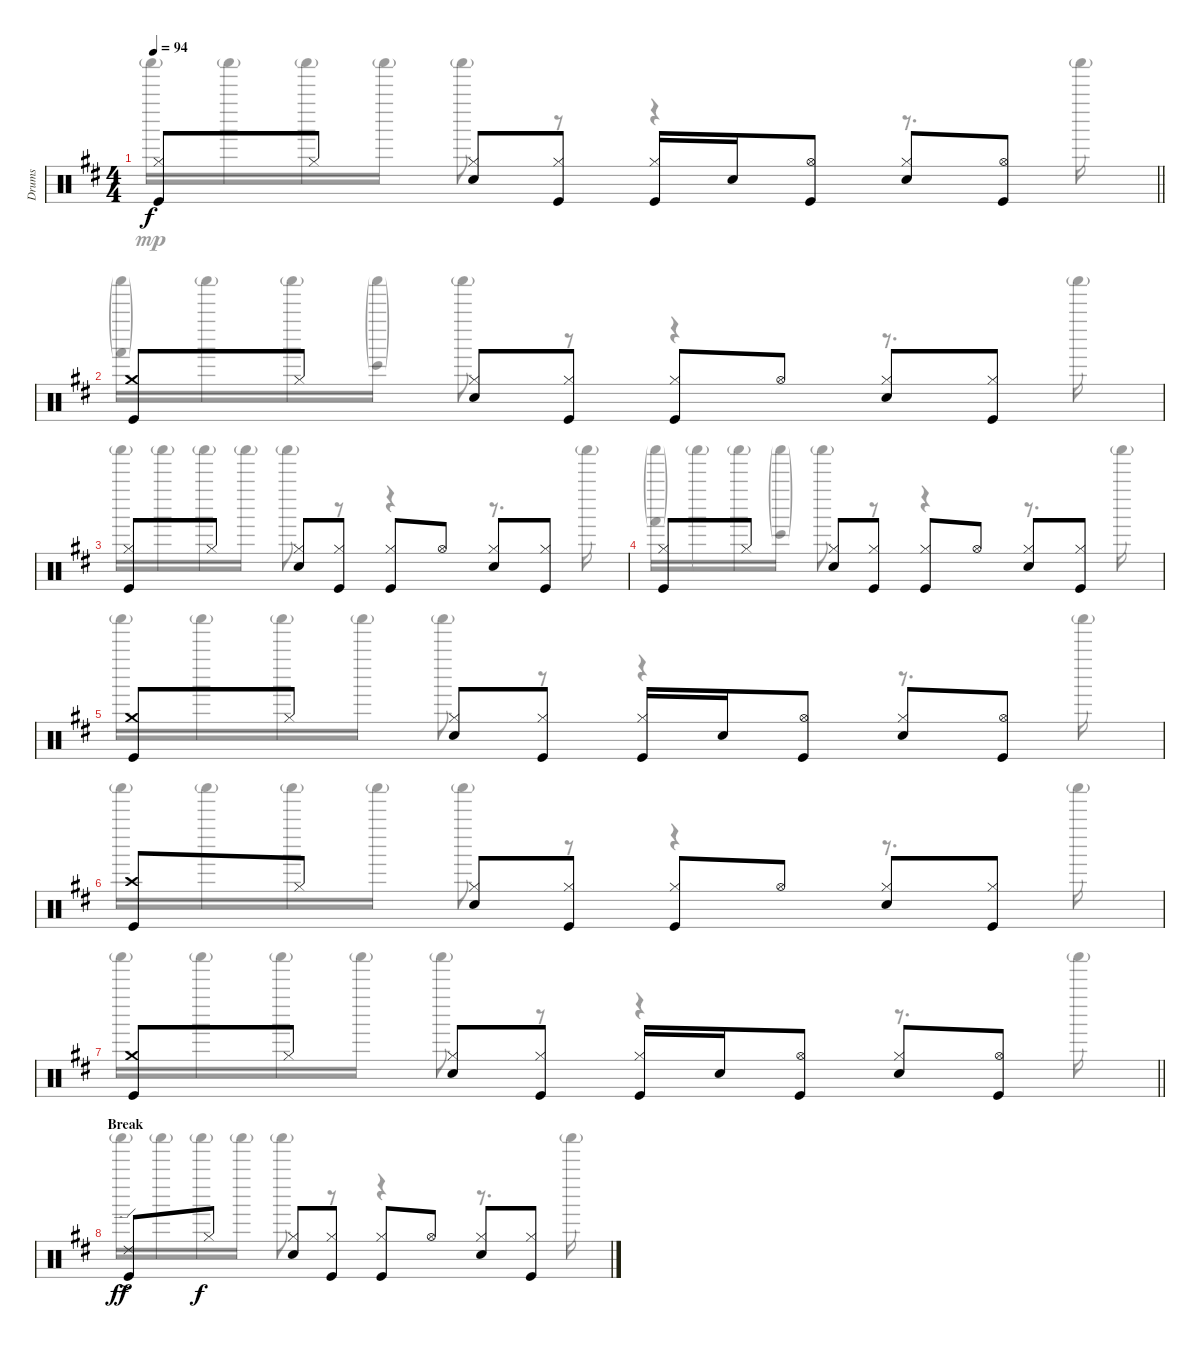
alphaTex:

\track ("Drums" "Drums") {instrument percussion}
\staff {score}
\articulation defaults
\voice
\ts (4 4)
\tempo 94
\clef neutral
\barLineRight lightlight
\ks d
("Hi-Hat (closed)" "Kick (hit)").8{dy f} "Hi-Hat (closed)".8 ("Hi-Hat (closed)" "Snare (hit) 2").8 ("Hi-Hat (closed)" "Kick (hit)").8 ("Hi-Hat (closed)" "Kick (hit)").16 "Snare (hit) 2".16 ("Hi-Hat (open)" "Kick (hit)").8 ("Hi-Hat (closed)" "Snare (hit) 2").8 ("Hi-Hat (open)" "Kick (hit)").8 |
\section ("" "")
("Crash medium (hit)" "Kick (hit)").8 "Hi-Hat (closed)".8 ("Hi-Hat (closed)" "Snare (hit) 2").8 ("Hi-Hat (closed)" "Kick (hit)").8 ("Hi-Hat (closed)" "Kick (hit)").8 "Hi-Hat (open)".8 ("Hi-Hat (closed)" "Snare (hit) 2").8 ("Hi-Hat (closed)" "Kick (hit)").8 |
("Hi-Hat (closed)" "Kick (hit)").8 "Hi-Hat (closed)".8 ("Hi-Hat (closed)" "Snare (hit) 2").8 ("Hi-Hat (closed)" "Kick (hit)").8 ("Hi-Hat (closed)" "Kick (hit)").8 "Hi-Hat (open)".8 ("Hi-Hat (closed)" "Snare (hit) 2").8 ("Hi-Hat (closed)" "Kick (hit)").8 |
("Hi-Hat (closed)" "Kick (hit)").8 "Hi-Hat (closed)".8 ("Hi-Hat (closed)" "Snare (hit) 2").8 ("Hi-Hat (closed)" "Kick (hit)").8 ("Hi-Hat (closed)" "Kick (hit)").8 "Hi-Hat (open)".8 ("Hi-Hat (closed)" "Snare (hit) 2").8 ("Hi-Hat (closed)" "Kick (hit)").8 |
("Crash medium (hit)" "Kick (hit)").8 "Hi-Hat (closed)".8 ("Hi-Hat (closed)" "Snare (hit) 2").8 ("Hi-Hat (closed)" "Kick (hit)").8 ("Hi-Hat (closed)" "Kick (hit)").16 "Snare (hit) 2".16 ("Hi-Hat (open)" "Kick (hit)").8 ("Hi-Hat (closed)" "Snare (hit) 2").8 ("Hi-Hat (open)" "Kick (hit)").8 |
("Crash high (hit)" "Kick (hit)").8 "Hi-Hat (closed)".8 ("Hi-Hat (closed)" "Snare (hit) 2").8 ("Hi-Hat (closed)" "Kick (hit)").8 ("Hi-Hat (closed)" "Kick (hit)").8 "Hi-Hat (open)".8 ("Hi-Hat (closed)" "Snare (hit) 2").8 ("Hi-Hat (closed)" "Kick (hit)").8 |
\barLineRight lightlight
("Crash medium (hit)" "Kick (hit)").8 "Hi-Hat (closed)".8 ("Hi-Hat (closed)" "Snare (hit) 2").8 ("Hi-Hat (closed)" "Kick (hit)").8 ("Hi-Hat (closed)" "Kick (hit)").16 "Snare (hit) 2".16 ("Hi-Hat (open)" "Kick (hit)").8 ("Hi-Hat (closed)" "Snare (hit) 2").8 ("Hi-Hat (open)" "Kick (hit)").8 |
\section ("" "Break")
("Ride (edge) 2"{ac} "Kick (hit)").8{dy ff} "Hi-Hat (closed)".8{dy f} ("Hi-Hat (closed)" "Snare (hit) 2").8 ("Hi-Hat (closed)" "Kick (hit)").8 ("Hi-Hat (closed)" "Kick (hit)").8 "Hi-Hat (open)".8 ("Hi-Hat (closed)" "Snare (hit) 2").8 ("Hi-Hat (closed)" "Kick (hit)").8
\voice
\clef neutral
\ottava regular
\simile none
\barLineRight lightlight
\ks d "Shaker (hit)"{g}.16{dy mp} "Shaker (hit)"{g}.16 "Shaker (hit)"{g}.16 "Shaker (hit)"{g}.16 "Shaker (hit)"{g}.8
r.8 r.4 r.8{d} "Shaker (hit)"{g}.16 |
("Shaker (hit)"{g} "Hand (hit)"{g}).16 "Shaker (hit)"{g}.16 "Shaker (hit)"{g}.16 ("Shaker (hit)"{g} "Bongo High (hit)"{g}).16 "Shaker (hit)"{g}.8 r.8 r.4 r.8{d} "Shaker (hit)"{g}.16 |
"Shaker (hit)"{g}.16 "Shaker (hit)"{g}.16 "Shaker (hit)"{g}.16 "Shaker (hit)"{g}.16 "Shaker (hit)"{g}.8 r.8 r.4 r.8{d} "Shaker (hit)"{g}.16 |
("Shaker (hit)"{g} "Hand (hit)"{g}).16 "Shaker (hit)"{g}.16 "Shaker (hit)"{g}.16 ("Shaker (hit)"{g} "Bongo High (hit)"{g}).16 "Shaker (hit)"{g}.8 r.8 r.4 r.8{d} "Shaker (hit)"{g}.16 |
"Shaker (hit)"{g}.16 "Shaker (hit)"{g}.16 "Shaker (hit)"{g}.16 "Shaker (hit)"{g}.16 "Shaker (hit)"{g}.8 r.8 r.4 r.8{d} "Shaker (hit)"{g}.16 |
"Shaker (hit)"{g}.16 "Shaker (hit)"{g}.16 "Shaker (hit)"{g}.16 "Shaker (hit)"{g}.16 "Shaker (hit)"{g}.8 r.8 r.4 r.8{d} "Shaker (hit)"{g}.16 |
\barLineRight lightlight "Shaker (hit)"{g}.16 "Shaker (hit)"{g}.16 "Shaker (hit)"{g}.16 "Shaker (hit)"{g}.16 "Shaker (hit)"{g}.8
r.8 r.4 r.8{d} "Shaker (hit)"{g}.16 |
"Shaker (hit)"{g}.16 "Shaker (hit)"{g}.16 "Shaker (hit)"{g}.16 "Shaker (hit)"{g}.16 "Shaker (hit)"{g}.8 r.8 r.4 r.8{d} "Shaker (hit)"{g}.16
